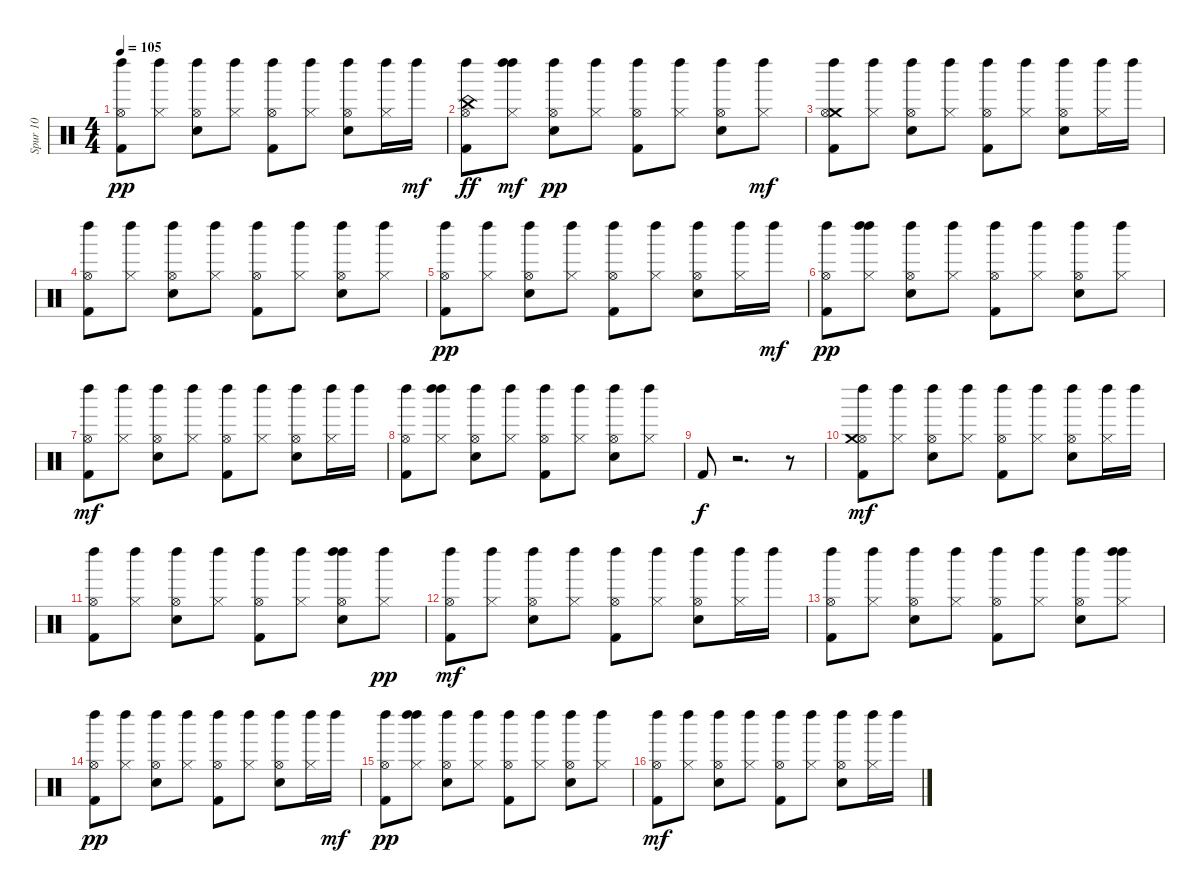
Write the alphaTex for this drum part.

\track ("Spur 10" "Spur 10") {instrument percussion}
\staff {score}
\articulation defaults
\ts (4 4)
\tempo 105
\clef neutral
\ks c
("Left Maraca (hit)" "Hi-Hat (open)" "Kick (hit) 2").8{dy pp} ("Left Maraca (hit)" "Hi-Hat (closed)").8 ("Left Maraca (hit)" "Hi-Hat (open)" "Snare (hit) 2").8 ("Left Maraca (hit)" "Hi-Hat (closed)").8 ("Left Maraca (hit)" "Hi-Hat (open)" "Kick (hit) 2").8 ("Left Maraca (hit)" "Hi-Hat (closed)").8 ("Left Maraca (hit)" "Hi-Hat (open)" "Snare (hit) 2").8 ("Left Maraca (hit)" "Hi-Hat (closed)").16 "Left Maraca (hit)".16{dy mf} |
("Left Maraca (hit)" "Hi-Hat (open)" "Kick (hit) 2" "China (hit)").8{dy ff} ("Left Maraca (hit)" "Hi-Hat (closed)" "Left Maraca (hit)").8{dy mf} ("Left Maraca (hit)" "Hi-Hat (open)" "Snare (hit) 2").8{dy pp} ("Left Maraca (hit)" "Hi-Hat (closed)").8 ("Left Maraca (hit)" "Hi-Hat (open)" "Kick (hit) 2").8 ("Left Maraca (hit)" "Hi-Hat (closed)").8 ("Left Maraca (hit)" "Hi-Hat (open)" "Snare (hit) 2").8 ("Hi-Hat (closed)" "Left Maraca (hit)").8{dy mf} |
("Crash medium (hit)" "Hi-Hat (open)" "Kick (hit) 2" "Left Maraca (hit)").8 ("Hi-Hat (closed)" "Left Maraca (hit)").8 ("Hi-Hat (open)" "Snare (hit) 2" "Left Maraca (hit)").8 ("Hi-Hat (closed)" "Left Maraca (hit)").8 ("Hi-Hat (open)" "Kick (hit) 2" "Left Maraca (hit)").8 ("Hi-Hat (closed)" "Left Maraca (hit)").8 ("Hi-Hat (open)" "Snare (hit) 2" "Left Maraca (hit)").8 ("Hi-Hat (closed)" "Left Maraca (hit)").16 "Left Maraca (hit)".16 |
("Hi-Hat (open)" "Kick (hit) 2" "Left Maraca (hit)").8 ("Hi-Hat (closed)" "Left Maraca (hit)").8 ("Hi-Hat (open)" "Snare (hit) 2" "Left Maraca (hit)").8 ("Hi-Hat (closed)" "Left Maraca (hit)").8 ("Hi-Hat (open)" "Kick (hit) 2" "Left Maraca (hit)").8 ("Hi-Hat (closed)" "Left Maraca (hit)").8 ("Hi-Hat (open)" "Snare (hit) 2" "Left Maraca (hit)").8 ("Hi-Hat (closed)" "Left Maraca (hit)").8 |
("Left Maraca (hit)" "Kick (hit) 2" "Hi-Hat (open)").8{dy pp} ("Left Maraca (hit)" "Hi-Hat (closed)").8 ("Left Maraca (hit)" "Snare (hit) 2" "Hi-Hat (open)").8 ("Left Maraca (hit)" "Hi-Hat (closed)").8 ("Left Maraca (hit)" "Kick (hit) 2" "Hi-Hat (open)").8 ("Left Maraca (hit)" "Hi-Hat (closed)").8 ("Left Maraca (hit)" "Snare (hit) 2" "Hi-Hat (open)").8 ("Left Maraca (hit)" "Hi-Hat (closed)").16 "Left Maraca (hit)".16{dy mf} |
("Left Maraca (hit)" "Kick (hit) 2" "Hi-Hat (open)").8{dy pp} ("Left Maraca (hit)" "Left Maraca (hit)" "Hi-Hat (closed)").8 ("Left Maraca (hit)" "Snare (hit) 2" "Hi-Hat (open)").8 ("Left Maraca (hit)" "Hi-Hat (closed)").8 ("Left Maraca (hit)" "Kick (hit) 2" "Hi-Hat (open)").8 ("Left Maraca (hit)" "Hi-Hat (closed)").8 ("Left Maraca (hit)" "Snare (hit) 2" "Hi-Hat (open)").8 ("Left Maraca (hit)" "Hi-Hat (closed)").8 |
("Hi-Hat (open)" "Kick (hit) 2" "Left Maraca (hit)").8{dy mf} ("Hi-Hat (closed)" "Left Maraca (hit)").8 ("Hi-Hat (open)" "Snare (hit) 2" "Left Maraca (hit)").8 ("Hi-Hat (closed)" "Left Maraca (hit)").8 ("Hi-Hat (open)" "Kick (hit) 2" "Left Maraca (hit)").8 ("Hi-Hat (closed)" "Left Maraca (hit)").8 ("Hi-Hat (open)" "Snare (hit) 2" "Left Maraca (hit)").8 ("Hi-Hat (closed)" "Left Maraca (hit)").16 "Left Maraca (hit)".16 |
("Hi-Hat (open)" "Kick (hit) 2" "Left Maraca (hit)").8 ("Hi-Hat (closed)" "Left Maraca (hit)" "Left Maraca (hit)").8 ("Hi-Hat (open)" "Snare (hit) 2" "Left Maraca (hit)").8 ("Hi-Hat (closed)" "Left Maraca (hit)").8 ("Hi-Hat (open)" "Kick (hit) 2" "Left Maraca (hit)").8 ("Hi-Hat (closed)" "Left Maraca (hit)").8 ("Hi-Hat (open)" "Snare (hit) 2" "Left Maraca (hit)").8 ("Hi-Hat (closed)" "Left Maraca (hit)").8 |
"Kick (hit) 2".8{dy f} r.2{d} r.8 |
("Kick (hit) 2" "Hi-Hat (open)" "Crash medium (hit)" "Left Maraca (hit)").8{dy mf} ("Hi-Hat (closed)" "Left Maraca (hit)").8 ("Snare (hit) 2" "Hi-Hat (open)" "Left Maraca (hit)").8 ("Hi-Hat (closed)" "Left Maraca (hit)").8 ("Kick (hit) 2" "Hi-Hat (open)" "Left Maraca (hit)").8 ("Hi-Hat (closed)" "Left Maraca (hit)").8 ("Snare (hit) 2" "Hi-Hat (open)" "Left Maraca (hit)").8 ("Hi-Hat (closed)" "Left Maraca (hit)").16 "Left Maraca (hit)".16 |
("Kick (hit) 2" "Hi-Hat (open)" "Left Maraca (hit)").8 ("Hi-Hat (closed)" "Left Maraca (hit)").8 ("Snare (hit) 2" "Hi-Hat (open)" "Left Maraca (hit)").8 ("Hi-Hat (closed)" "Left Maraca (hit)").8 ("Kick (hit) 2" "Hi-Hat (open)" "Left Maraca (hit)").8 ("Hi-Hat (closed)" "Left Maraca (hit)").8 ("Snare (hit) 2" "Hi-Hat (open)" "Left Maraca (hit)" "Left Maraca (hit)").8 ("Left Maraca (hit)" "Hi-Hat (closed)").8{dy pp} |
("Hi-Hat (open)" "Kick (hit) 2" "Left Maraca (hit)").8{dy mf} ("Hi-Hat (closed)" "Left Maraca (hit)").8 ("Hi-Hat (open)" "Snare (hit) 2" "Left Maraca (hit)").8 ("Hi-Hat (closed)" "Left Maraca (hit)").8 ("Hi-Hat (open)" "Kick (hit) 2" "Left Maraca (hit)").8 ("Hi-Hat (closed)" "Left Maraca (hit)").8 ("Hi-Hat (open)" "Snare (hit) 2" "Left Maraca (hit)").8 ("Hi-Hat (closed)" "Left Maraca (hit)").16 "Left Maraca (hit)".16 |
("Hi-Hat (open)" "Kick (hit) 2" "Left Maraca (hit)").8 ("Hi-Hat (closed)" "Left Maraca (hit)").8 ("Hi-Hat (open)" "Snare (hit) 2" "Left Maraca (hit)").8 ("Hi-Hat (closed)" "Left Maraca (hit)").8 ("Hi-Hat (open)" "Kick (hit) 2" "Left Maraca (hit)").8 ("Hi-Hat (closed)" "Left Maraca (hit)").8 ("Hi-Hat (open)" "Snare (hit) 2" "Left Maraca (hit)").8 ("Hi-Hat (closed)" "Left Maraca (hit)" "Left Maraca (hit)").8 |
("Left Maraca (hit)" "Kick (hit) 2" "Hi-Hat (open)").8{dy pp} ("Left Maraca (hit)" "Hi-Hat (closed)").8 ("Left Maraca (hit)" "Snare (hit) 2" "Hi-Hat (open)").8 ("Left Maraca (hit)" "Hi-Hat (closed)").8 ("Left Maraca (hit)" "Kick (hit) 2" "Hi-Hat (open)").8 ("Left Maraca (hit)" "Hi-Hat (closed)").8 ("Left Maraca (hit)" "Snare (hit) 2" "Hi-Hat (open)").8 ("Left Maraca (hit)" "Hi-Hat (closed)").16 "Left Maraca (hit)".16{dy mf} |
("Left Maraca (hit)" "Kick (hit) 2" "Hi-Hat (open)").8{dy pp} ("Left Maraca (hit)" "Left Maraca (hit)" "Hi-Hat (closed)").8 ("Left Maraca (hit)" "Snare (hit) 2" "Hi-Hat (open)").8 ("Left Maraca (hit)" "Hi-Hat (closed)").8 ("Left Maraca (hit)" "Kick (hit) 2" "Hi-Hat (open)").8 ("Left Maraca (hit)" "Hi-Hat (closed)").8 ("Left Maraca (hit)" "Snare (hit) 2" "Hi-Hat (open)").8 ("Left Maraca (hit)" "Hi-Hat (closed)").8 |
("Hi-Hat (open)" "Kick (hit) 2" "Left Maraca (hit)").8{dy mf} ("Hi-Hat (closed)" "Left Maraca (hit)").8 ("Hi-Hat (open)" "Snare (hit) 2" "Left Maraca (hit)").8 ("Hi-Hat (closed)" "Left Maraca (hit)").8 ("Hi-Hat (open)" "Kick (hit) 2" "Left Maraca (hit)").8 ("Hi-Hat (closed)" "Left Maraca (hit)").8 ("Hi-Hat (open)" "Snare (hit) 2" "Left Maraca (hit)").8 ("Hi-Hat (closed)" "Left Maraca (hit)").16 "Left Maraca (hit)".16
